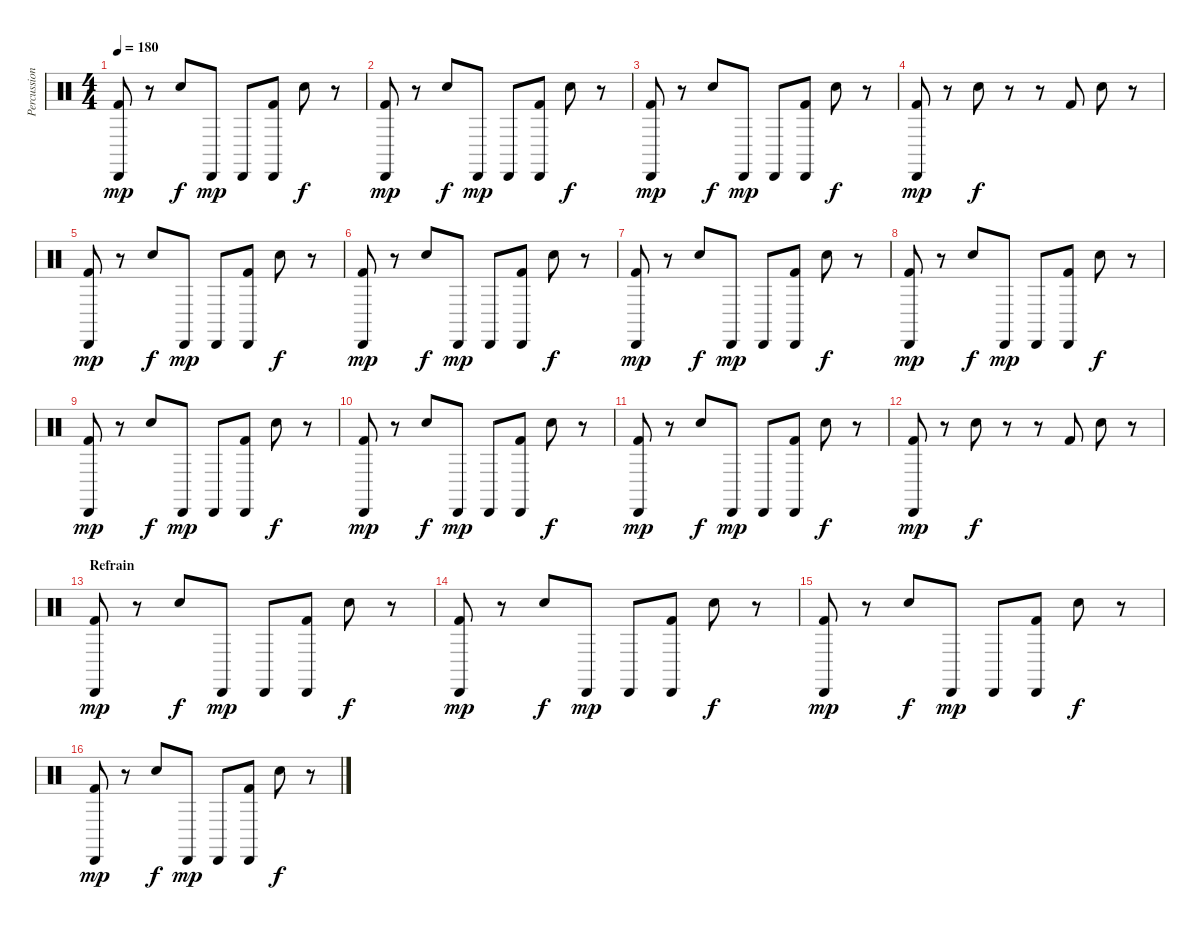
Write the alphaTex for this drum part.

\track ("Percussions" "Percussion") {instrument percussion}
\staff {score}
\articulation defaults
\ts (4 4)
\tempo 180
\clef neutral
\ks c
("Cabasa (hit)" "Kick (hit) 2").8{dy mp} r.8 "Electric Snare (hit)".8{dy f} "Cabasa (hit)".8{dy mp} "Cabasa (hit)".8 ("Cabasa (hit)" "Kick (hit) 2").8 "Electric Snare (hit)".8{dy f} r.8 |
("Cabasa (hit)" "Kick (hit) 2").8{dy mp} r.8 "Electric Snare (hit)".8{dy f} "Cabasa (hit)".8{dy mp} "Cabasa (hit)".8 ("Cabasa (hit)" "Kick (hit) 2").8 "Electric Snare (hit)".8{dy f} r.8 |
("Cabasa (hit)" "Kick (hit) 2").8{dy mp} r.8 "Electric Snare (hit)".8{dy f} "Cabasa (hit)".8{dy mp} "Cabasa (hit)".8 ("Cabasa (hit)" "Kick (hit) 2").8 "Electric Snare (hit)".8{dy f} r.8 |
("Cabasa (hit)" "Kick (hit) 2").8{dy mp} r.8 "Electric Snare (hit)".8{dy f} r.8 r.8 "Kick (hit) 2".8 "Electric Snare (hit)".8 r.8 |
("Cabasa (hit)" "Kick (hit) 2").8{dy mp} r.8 "Electric Snare (hit)".8{dy f} "Cabasa (hit)".8{dy mp} "Cabasa (hit)".8 ("Cabasa (hit)" "Kick (hit) 2").8 "Electric Snare (hit)".8{dy f} r.8 |
("Cabasa (hit)" "Kick (hit) 2").8{dy mp} r.8 "Electric Snare (hit)".8{dy f} "Cabasa (hit)".8{dy mp} "Cabasa (hit)".8 ("Cabasa (hit)" "Kick (hit) 2").8 "Electric Snare (hit)".8{dy f} r.8 |
("Cabasa (hit)" "Kick (hit) 2").8{dy mp} r.8 "Electric Snare (hit)".8{dy f} "Cabasa (hit)".8{dy mp} "Cabasa (hit)".8 ("Cabasa (hit)" "Kick (hit) 2").8 "Electric Snare (hit)".8{dy f} r.8 |
("Cabasa (hit)" "Kick (hit) 2").8{dy mp} r.8 "Electric Snare (hit)".8{dy f} "Cabasa (hit)".8{dy mp} "Cabasa (hit)".8 ("Cabasa (hit)" "Kick (hit) 2").8 "Electric Snare (hit)".8{dy f} r.8 |
("Cabasa (hit)" "Kick (hit) 2").8{dy mp} r.8 "Electric Snare (hit)".8{dy f} "Cabasa (hit)".8{dy mp} "Cabasa (hit)".8 ("Cabasa (hit)" "Kick (hit) 2").8 "Electric Snare (hit)".8{dy f} r.8 |
("Cabasa (hit)" "Kick (hit) 2").8{dy mp} r.8 "Electric Snare (hit)".8{dy f} "Cabasa (hit)".8{dy mp} "Cabasa (hit)".8 ("Cabasa (hit)" "Kick (hit) 2").8 "Electric Snare (hit)".8{dy f} r.8 |
("Cabasa (hit)" "Kick (hit) 2").8{dy mp} r.8 "Electric Snare (hit)".8{dy f} "Cabasa (hit)".8{dy mp} "Cabasa (hit)".8 ("Cabasa (hit)" "Kick (hit) 2").8 "Electric Snare (hit)".8{dy f} r.8 |
("Cabasa (hit)" "Kick (hit) 2").8{dy mp} r.8 "Electric Snare (hit)".8{dy f} r.8 r.8 "Kick (hit) 2".8 "Electric Snare (hit)".8 r.8 |
\section ("" "Refrain")
("Cabasa (hit)" "Kick (hit) 2").8{dy mp} r.8 "Electric Snare (hit)".8{dy f} "Cabasa (hit)".8{dy mp} "Cabasa (hit)".8 ("Cabasa (hit)" "Kick (hit) 2").8 "Electric Snare (hit)".8{dy f} r.8 |
("Cabasa (hit)" "Kick (hit) 2").8{dy mp} r.8 "Electric Snare (hit)".8{dy f} "Cabasa (hit)".8{dy mp} "Cabasa (hit)".8 ("Cabasa (hit)" "Kick (hit) 2").8 "Electric Snare (hit)".8{dy f} r.8 |
("Cabasa (hit)" "Kick (hit) 2").8{dy mp} r.8 "Electric Snare (hit)".8{dy f} "Cabasa (hit)".8{dy mp} "Cabasa (hit)".8 ("Cabasa (hit)" "Kick (hit) 2").8 "Electric Snare (hit)".8{dy f} r.8 |
("Cabasa (hit)" "Kick (hit) 2").8{dy mp} r.8 "Electric Snare (hit)".8{dy f} "Cabasa (hit)".8{dy mp} "Cabasa (hit)".8 ("Cabasa (hit)" "Kick (hit) 2").8 "Electric Snare (hit)".8{dy f} r.8
